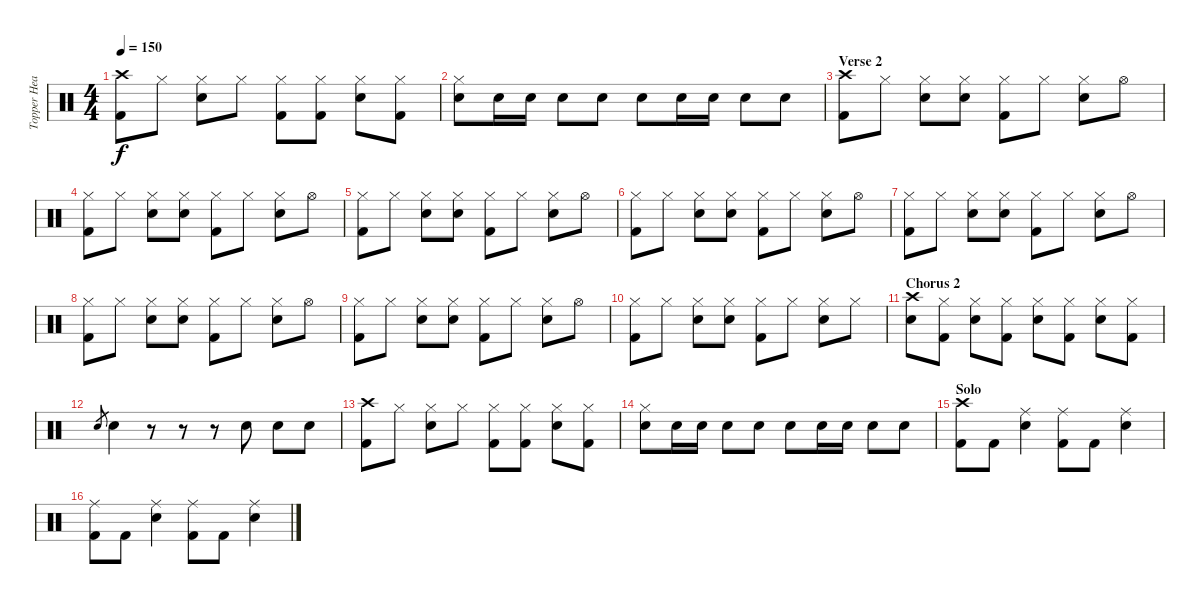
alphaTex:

\track ("Topper Headon - Drums" "Topper Hea") {instrument percussion}
\staff {score}
\articulation defaults
\ts (4 4)
\tempo 150
\clef neutral
\ks c
("Crash high (hit)" "Kick (hit) 2").8{dy f} "Hi-Hat (closed)".8 ("Hi-Hat (closed)" "Electric Snare (hit)").8 "Hi-Hat (closed)".8 ("Hi-Hat (closed)" "Kick (hit) 2").8 ("Hi-Hat (closed)" "Kick (hit) 2").8 ("Hi-Hat (closed)" "Electric Snare (hit)").8 ("Hi-Hat (closed)" "Kick (hit) 2").8 |
("Hi-Hat (closed)" "Electric Snare (hit)").8 "Electric Snare (hit)".16 "Electric Snare (hit)".16 "Electric Snare (hit)".8 "Electric Snare (hit)".8 "Electric Snare (hit)".8 "Electric Snare (hit)".16 "Electric Snare (hit)".16 "Electric Snare (hit)".8 "Electric Snare (hit)".8 |
\section ("" "Verse 2")
("Crash high (hit)" "Kick (hit) 2").8 "Hi-Hat (closed)".8 ("Hi-Hat (closed)" "Electric Snare (hit)").8 ("Hi-Hat (closed)" "Electric Snare (hit)").8 ("Hi-Hat (closed)" "Kick (hit) 2").8 "Hi-Hat (closed)".8 ("Hi-Hat (closed)" "Electric Snare (hit)").8 "Hi-Hat (open)".8 |
("Hi-Hat (closed)" "Kick (hit) 2").8 "Hi-Hat (closed)".8 ("Hi-Hat (closed)" "Electric Snare (hit)").8 ("Hi-Hat (closed)" "Electric Snare (hit)").8 ("Hi-Hat (closed)" "Kick (hit) 2").8 "Hi-Hat (closed)".8 ("Hi-Hat (closed)" "Electric Snare (hit)").8 "Hi-Hat (open)".8 |
("Hi-Hat (closed)" "Kick (hit) 2").8 "Hi-Hat (closed)".8 ("Hi-Hat (closed)" "Electric Snare (hit)").8 ("Hi-Hat (closed)" "Electric Snare (hit)").8 ("Hi-Hat (closed)" "Kick (hit) 2").8 "Hi-Hat (closed)".8 ("Hi-Hat (closed)" "Electric Snare (hit)").8 "Hi-Hat (open)".8 |
("Hi-Hat (closed)" "Kick (hit) 2").8 "Hi-Hat (closed)".8 ("Hi-Hat (closed)" "Electric Snare (hit)").8 ("Hi-Hat (closed)" "Electric Snare (hit)").8 ("Hi-Hat (closed)" "Kick (hit) 2").8 "Hi-Hat (closed)".8 ("Hi-Hat (closed)" "Electric Snare (hit)").8 "Hi-Hat (open)".8 |
("Hi-Hat (closed)" "Kick (hit) 2").8 "Hi-Hat (closed)".8 ("Hi-Hat (closed)" "Electric Snare (hit)").8 ("Hi-Hat (closed)" "Electric Snare (hit)").8 ("Hi-Hat (closed)" "Kick (hit) 2").8 "Hi-Hat (closed)".8 ("Hi-Hat (closed)" "Electric Snare (hit)").8 "Hi-Hat (open)".8 |
("Hi-Hat (closed)" "Kick (hit) 2").8 "Hi-Hat (closed)".8 ("Hi-Hat (closed)" "Electric Snare (hit)").8 ("Hi-Hat (closed)" "Electric Snare (hit)").8 ("Hi-Hat (closed)" "Kick (hit) 2").8 "Hi-Hat (closed)".8 ("Hi-Hat (closed)" "Electric Snare (hit)").8 "Hi-Hat (open)".8 |
("Hi-Hat (closed)" "Kick (hit) 2").8 "Hi-Hat (closed)".8 ("Hi-Hat (closed)" "Electric Snare (hit)").8 ("Hi-Hat (closed)" "Electric Snare (hit)").8 ("Hi-Hat (closed)" "Kick (hit) 2").8 "Hi-Hat (closed)".8 ("Hi-Hat (closed)" "Electric Snare (hit)").8 "Hi-Hat (open)".8 |
("Hi-Hat (closed)" "Kick (hit) 2").8 "Hi-Hat (closed)".8 ("Hi-Hat (closed)" "Electric Snare (hit)").8 ("Hi-Hat (closed)" "Electric Snare (hit)").8 ("Hi-Hat (closed)" "Kick (hit) 2").8 "Hi-Hat (closed)".8 ("Hi-Hat (closed)" "Electric Snare (hit)").8 "Hi-Hat (closed)".8 |
\section ("" "Chorus 2")
("Crash high (hit)" "Electric Snare (hit)").8 ("Hi-Hat (closed)" "Kick (hit) 2").8 ("Hi-Hat (closed)" "Electric Snare (hit)").8 ("Hi-Hat (closed)" "Kick (hit) 2").8 ("Hi-Hat (closed)" "Electric Snare (hit)").8 ("Hi-Hat (closed)" "Kick (hit) 2").8 ("Hi-Hat (closed)" "Electric Snare (hit)").8 ("Hi-Hat (closed)" "Kick (hit) 2").8 |
"Electric Snare (hit)".8{gr} "Electric Snare (hit)".4 r.8 r.8 r.8 "Electric Snare (hit)".8 "Electric Snare (hit)".8 "Electric Snare (hit)".8 |
("Crash high (hit)" "Kick (hit) 2").8 "Hi-Hat (closed)".8 ("Hi-Hat (closed)" "Electric Snare (hit)").8 "Hi-Hat (closed)".8 ("Hi-Hat (closed)" "Kick (hit) 2").8 ("Hi-Hat (closed)" "Kick (hit) 2").8 ("Hi-Hat (closed)" "Electric Snare (hit)").8 ("Hi-Hat (closed)" "Kick (hit) 2").8 |
("Hi-Hat (closed)" "Electric Snare (hit)").8 "Electric Snare (hit)".16 "Electric Snare (hit)".16 "Electric Snare (hit)".8 "Electric Snare (hit)".8 "Electric Snare (hit)".8 "Electric Snare (hit)".16 "Electric Snare (hit)".16 "Electric Snare (hit)".8 "Electric Snare (hit)".8 |
\section ("" "Solo")
("Crash high (hit)" "Kick (hit) 2").8 "Kick (hit) 2".8 ("Ride (middle)" "Electric Snare (hit)").4 ("Ride (middle)" "Kick (hit) 2").8 "Kick (hit) 2".8 ("Ride (middle)" "Electric Snare (hit)").4 |
("Ride (middle)" "Kick (hit) 2").8 "Kick (hit) 2".8 ("Ride (middle)" "Electric Snare (hit)").4 ("Ride (middle)" "Kick (hit) 2").8 "Kick (hit) 2".8 ("Ride (middle)" "Electric Snare (hit)").4
